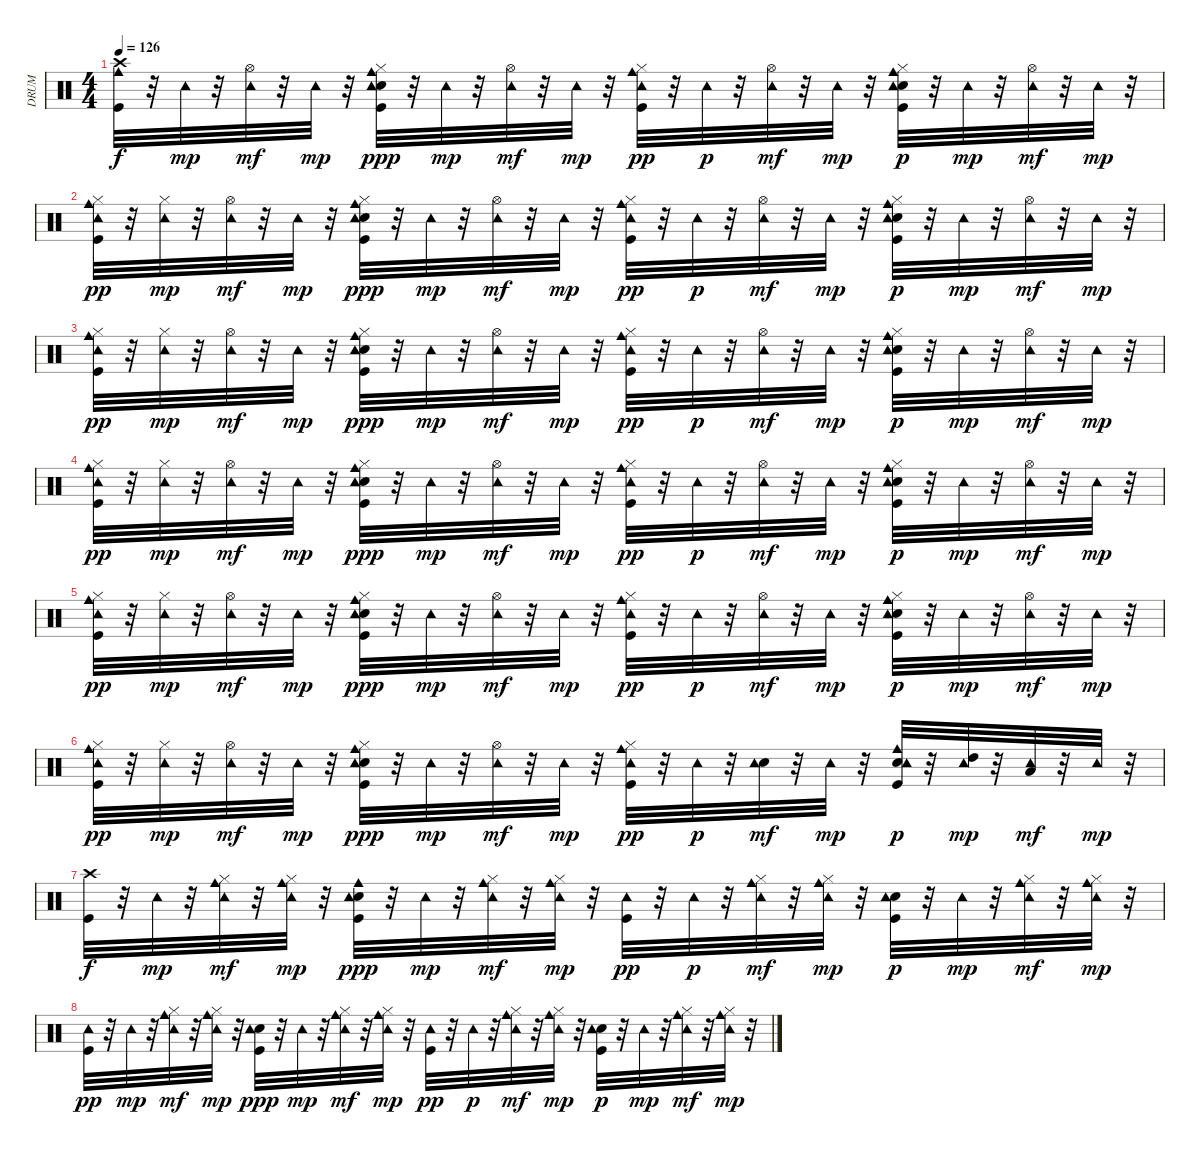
\track ("DRUM" "DRUM") {instrument percussion}
\staff {score}
\articulation defaults
\ts (4 4)
\tempo 126
\clef neutral
\ks c
("Kick (hit)" "Crash high (hit)" "Cowbell medium (hit)").32{dy f} r.32 "Tambourine (hit)".32{dy mp} r.32 ("Hi-Hat (open)" "Tambourine (hit)").32{dy mf} r.32 "Tambourine (hit)".32{dy mp} r.32 ("Kick (hit)" "Electric Snare (hit)" "Hi-Hat (closed)" "Tambourine (hit)" "Cowbell medium (hit)").32{dy ppp} r.32 "Tambourine (hit)".32{dy mp} r.32 ("Hi-Hat (open)" "Tambourine (hit)").32{dy mf} r.32 "Tambourine (hit)".32{dy mp} r.32 ("Kick (hit)" "Hi-Hat (closed)" "Tambourine (hit)" "Cowbell medium (hit)").32{dy pp} r.32 "Tambourine (hit)".32{dy p} r.32 ("Hi-Hat (open)" "Tambourine (hit)").32{dy mf} r.32 "Tambourine (hit)".32{dy mp} r.32 ("Kick (hit)" "Electric Snare (hit)" "Hi-Hat (closed)" "Tambourine (hit)" "Cowbell medium (hit)").32{dy p} r.32 "Tambourine (hit)".32{dy mp} r.32 ("Hi-Hat (open)" "Tambourine (hit)").32{dy mf} r.32 "Tambourine (hit)".32{dy mp} r.32 |
("Kick (hit)" "Hi-Hat (closed)" "Tambourine (hit)" "Cowbell medium (hit)").32{dy pp} r.32 ("Hi-Hat (closed)" "Tambourine (hit)").32{dy mp} r.32 ("Hi-Hat (open)" "Tambourine (hit)").32{dy mf} r.32 "Tambourine (hit)".32{dy mp} r.32 ("Kick (hit)" "Electric Snare (hit)" "Hi-Hat (closed)" "Tambourine (hit)" "Cowbell medium (hit)").32{dy ppp} r.32 "Tambourine (hit)".32{dy mp} r.32 ("Hi-Hat (open)" "Tambourine (hit)").32{dy mf} r.32 "Tambourine (hit)".32{dy mp} r.32 ("Kick (hit)" "Hi-Hat (closed)" "Tambourine (hit)" "Cowbell medium (hit)").32{dy pp} r.32 "Tambourine (hit)".32{dy p} r.32 ("Hi-Hat (open)" "Tambourine (hit)").32{dy mf} r.32 "Tambourine (hit)".32{dy mp} r.32 ("Kick (hit)" "Electric Snare (hit)" "Hi-Hat (closed)" "Tambourine (hit)" "Cowbell medium (hit)").32{dy p} r.32 "Tambourine (hit)".32{dy mp} r.32 ("Hi-Hat (open)" "Tambourine (hit)").32{dy mf} r.32 "Tambourine (hit)".32{dy mp} r.32 |
("Kick (hit)" "Hi-Hat (closed)" "Tambourine (hit)" "Cowbell medium (hit)").32{dy pp} r.32 ("Hi-Hat (closed)" "Tambourine (hit)").32{dy mp} r.32 ("Hi-Hat (open)" "Tambourine (hit)").32{dy mf} r.32 "Tambourine (hit)".32{dy mp} r.32 ("Kick (hit)" "Electric Snare (hit)" "Hi-Hat (closed)" "Tambourine (hit)" "Cowbell medium (hit)").32{dy ppp} r.32 "Tambourine (hit)".32{dy mp} r.32 ("Hi-Hat (open)" "Tambourine (hit)").32{dy mf} r.32 "Tambourine (hit)".32{dy mp} r.32 ("Kick (hit)" "Hi-Hat (closed)" "Tambourine (hit)" "Cowbell medium (hit)").32{dy pp} r.32 "Tambourine (hit)".32{dy p} r.32 ("Hi-Hat (open)" "Tambourine (hit)").32{dy mf} r.32 "Tambourine (hit)".32{dy mp} r.32 ("Kick (hit)" "Electric Snare (hit)" "Hi-Hat (closed)" "Tambourine (hit)" "Cowbell medium (hit)").32{dy p} r.32 "Tambourine (hit)".32{dy mp} r.32 ("Hi-Hat (open)" "Tambourine (hit)").32{dy mf} r.32 "Tambourine (hit)".32{dy mp} r.32 |
("Kick (hit)" "Hi-Hat (closed)" "Tambourine (hit)" "Cowbell medium (hit)").32{dy pp} r.32 ("Hi-Hat (closed)" "Tambourine (hit)").32{dy mp} r.32 ("Hi-Hat (open)" "Tambourine (hit)").32{dy mf} r.32 "Tambourine (hit)".32{dy mp} r.32 ("Kick (hit)" "Electric Snare (hit)" "Hi-Hat (closed)" "Tambourine (hit)" "Cowbell medium (hit)").32{dy ppp} r.32 "Tambourine (hit)".32{dy mp} r.32 ("Hi-Hat (open)" "Tambourine (hit)").32{dy mf} r.32 "Tambourine (hit)".32{dy mp} r.32 ("Kick (hit)" "Hi-Hat (closed)" "Tambourine (hit)" "Cowbell medium (hit)").32{dy pp} r.32 "Tambourine (hit)".32{dy p} r.32 ("Hi-Hat (open)" "Tambourine (hit)").32{dy mf} r.32 "Tambourine (hit)".32{dy mp} r.32 ("Kick (hit)" "Electric Snare (hit)" "Hi-Hat (closed)" "Tambourine (hit)" "Cowbell medium (hit)").32{dy p} r.32 "Tambourine (hit)".32{dy mp} r.32 ("Hi-Hat (open)" "Tambourine (hit)").32{dy mf} r.32 "Tambourine (hit)".32{dy mp} r.32 |
("Kick (hit)" "Hi-Hat (closed)" "Tambourine (hit)" "Cowbell medium (hit)").32{dy pp} r.32 ("Hi-Hat (closed)" "Tambourine (hit)").32{dy mp} r.32 ("Hi-Hat (open)" "Tambourine (hit)").32{dy mf} r.32 "Tambourine (hit)".32{dy mp} r.32 ("Kick (hit)" "Electric Snare (hit)" "Hi-Hat (closed)" "Tambourine (hit)" "Cowbell medium (hit)").32{dy ppp} r.32 "Tambourine (hit)".32{dy mp} r.32 ("Hi-Hat (open)" "Tambourine (hit)").32{dy mf} r.32 "Tambourine (hit)".32{dy mp} r.32 ("Kick (hit)" "Hi-Hat (closed)" "Tambourine (hit)" "Cowbell medium (hit)").32{dy pp} r.32 "Tambourine (hit)".32{dy p} r.32 ("Hi-Hat (open)" "Tambourine (hit)").32{dy mf} r.32 "Tambourine (hit)".32{dy mp} r.32 ("Kick (hit)" "Electric Snare (hit)" "Hi-Hat (closed)" "Tambourine (hit)" "Cowbell medium (hit)").32{dy p} r.32 "Tambourine (hit)".32{dy mp} r.32 ("Hi-Hat (open)" "Tambourine (hit)").32{dy mf} r.32 "Tambourine (hit)".32{dy mp} r.32 |
("Kick (hit)" "Hi-Hat (closed)" "Tambourine (hit)" "Cowbell medium (hit)").32{dy pp} r.32 ("Hi-Hat (closed)" "Tambourine (hit)").32{dy mp} r.32 ("Hi-Hat (open)" "Tambourine (hit)").32{dy mf} r.32 "Tambourine (hit)".32{dy mp} r.32 ("Kick (hit)" "Electric Snare (hit)" "Hi-Hat (closed)" "Tambourine (hit)" "Cowbell medium (hit)").32{dy ppp} r.32 "Tambourine (hit)".32{dy mp} r.32 ("Hi-Hat (open)" "Tambourine (hit)").32{dy mf} r.32 "Tambourine (hit)".32{dy mp} r.32 ("Kick (hit)" "Hi-Hat (closed)" "Tambourine (hit)" "Cowbell medium (hit)").32{dy pp} r.32 "Tambourine (hit)".32{dy p} r.32 ("Electric Snare (hit)" "Tambourine (hit)").32{dy mf} r.32 "Tambourine (hit)".32{dy mp} r.32 ("Kick (hit)" "Electric Snare (hit)" "Tambourine (hit)" "Cowbell medium (hit)").32{dy p} r.32 ("High Tom (hit)" "Tambourine (hit)").32{dy mp} r.32 ("Low Tom (hit)" "Tambourine (hit)").32{dy mf} r.32 "Tambourine (hit)".32{dy mp} r.32 |
("Kick (hit)" "Crash high (hit)").32{dy f} r.32 "Tambourine (hit)".32{dy mp} r.32 ("Hi-Hat (closed)" "Tambourine (hit)" "Cowbell medium (hit)").32{dy mf} r.32 ("Hi-Hat (closed)" "Tambourine (hit)" "Cowbell medium (hit)").32{dy mp} r.32 ("Kick (hit)" "Electric Snare (hit)" "Tambourine (hit)" "Cowbell medium (hit)").32{dy ppp} r.32 "Tambourine (hit)".32{dy mp} r.32 ("Hi-Hat (closed)" "Tambourine (hit)" "Cowbell medium (hit)").32{dy mf} r.32 ("Hi-Hat (closed)" "Tambourine (hit)" "Cowbell medium (hit)").32{dy mp} r.32 ("Kick (hit)" "Tambourine (hit)").32{dy pp} r.32 "Tambourine (hit)".32{dy p} r.32 ("Hi-Hat (closed)" "Tambourine (hit)" "Cowbell medium (hit)").32{dy mf} r.32 ("Hi-Hat (closed)" "Tambourine (hit)" "Cowbell medium (hit)").32{dy mp} r.32 ("Kick (hit)" "Electric Snare (hit)" "Tambourine (hit)").32{dy p} r.32 "Tambourine (hit)".32{dy mp} r.32 ("Hi-Hat (closed)" "Tambourine (hit)" "Cowbell medium (hit)").32{dy mf} r.32 ("Hi-Hat (closed)" "Tambourine (hit)" "Cowbell medium (hit)").32{dy mp} r.32 |
("Kick (hit)" "Tambourine (hit)").32{dy pp} r.32 "Tambourine (hit)".32{dy mp} r.32 ("Hi-Hat (closed)" "Tambourine (hit)" "Cowbell medium (hit)").32{dy mf} r.32 ("Hi-Hat (closed)" "Tambourine (hit)" "Cowbell medium (hit)").32{dy mp} r.32 ("Kick (hit)" "Electric Snare (hit)" "Tambourine (hit)").32{dy ppp} r.32 "Tambourine (hit)".32{dy mp} r.32 ("Hi-Hat (closed)" "Tambourine (hit)" "Cowbell medium (hit)").32{dy mf} r.32 ("Hi-Hat (closed)" "Tambourine (hit)" "Cowbell medium (hit)").32{dy mp} r.32 ("Kick (hit)" "Tambourine (hit)").32{dy pp} r.32 "Tambourine (hit)".32{dy p} r.32 ("Hi-Hat (closed)" "Tambourine (hit)" "Cowbell medium (hit)").32{dy mf} r.32 ("Hi-Hat (closed)" "Tambourine (hit)" "Cowbell medium (hit)").32{dy mp} r.32 ("Kick (hit)" "Electric Snare (hit)" "Tambourine (hit)").32{dy p} r.32 "Tambourine (hit)".32{dy mp} r.32 ("Hi-Hat (closed)" "Tambourine (hit)" "Cowbell medium (hit)").32{dy mf} r.32 ("Hi-Hat (closed)" "Tambourine (hit)" "Cowbell medium (hit)").32{dy mp} r.32
